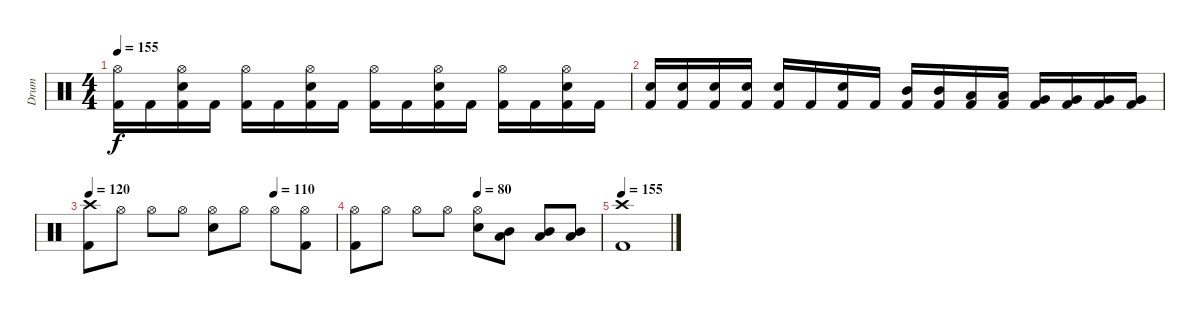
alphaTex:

\track ("Drum" "Drum") {instrument percussion}
\staff {score}
\articulation defaults
\ts (4 4)
\tempo 155
\clef neutral
\ks c
("Hi-Hat (open)" "Kick (hit) 2").16{dy f} "Kick (hit) 2".16 ("Hi-Hat (open)" "Electric Snare (hit)" "Kick (hit) 2").16 "Kick (hit) 2".16 ("Hi-Hat (open)" "Kick (hit) 2").16 "Kick (hit) 2".16 ("Hi-Hat (open)" "Electric Snare (hit)" "Kick (hit) 2").16 "Kick (hit) 2".16 ("Hi-Hat (open)" "Kick (hit) 2").16 "Kick (hit) 2".16 ("Hi-Hat (open)" "Electric Snare (hit)" "Kick (hit) 2").16 "Kick (hit) 2".16 ("Hi-Hat (open)" "Kick (hit) 2").16 "Kick (hit) 2".16 ("Hi-Hat (open)" "Electric Snare (hit)" "Kick (hit) 2").16 "Kick (hit) 2".16 |
("Electric Snare (hit)" "Kick (hit) 2").16 ("Electric Snare (hit)" "Kick (hit) 2").16 ("Electric Snare (hit)" "Kick (hit) 2").16 ("Electric Snare (hit)" "Kick (hit) 2").16 ("Electric Snare (hit)" "Kick (hit) 2").16 "Kick (hit) 2".16 ("Electric Snare (hit)" "Kick (hit) 2").16 "Kick (hit) 2".16 ("Mid Tom (hit)" "Kick (hit) 2").16 ("Mid Tom (hit)" "Kick (hit) 2").16 ("Low Tom (hit)" "Kick (hit) 2").16 ("Low Tom (hit)" "Kick (hit) 2").16 ("Very Low Tom (hit)" "Kick (hit) 2").16 ("Very Low Tom (hit)" "Kick (hit) 2").16 ("Very Low Tom (hit)" "Kick (hit) 2").16 ("Very Low Tom (hit)" "Kick (hit) 2").16 |
\tempo 120
\tempo (110 0.75)
("Crash high (hit)" "Kick (hit) 2").8 "Hi-Hat (open)".8 "Hi-Hat (open)".8 "Hi-Hat (open)".8 ("Hi-Hat (open)" "Electric Snare (hit)").8 "Hi-Hat (open)".8 "Hi-Hat (open)".8 ("Hi-Hat (open)" "Kick (hit) 2").8 |
\tempo (80 0.5)
("Hi-Hat (open)" "Kick (hit) 2").8 "Hi-Hat (open)".8 "Hi-Hat (open)".8 "Hi-Hat (open)".8 ("Hi-Hat (open)" "Electric Snare (hit)").8 ("Low Tom (hit)" "Mid Tom (hit)").8 ("Low Tom (hit)" "Mid Tom (hit)").8 ("Low Tom (hit)" "Mid Tom (hit)").8 |
\tempo 155
("Crash high (hit)" "Kick (hit) 2").1
